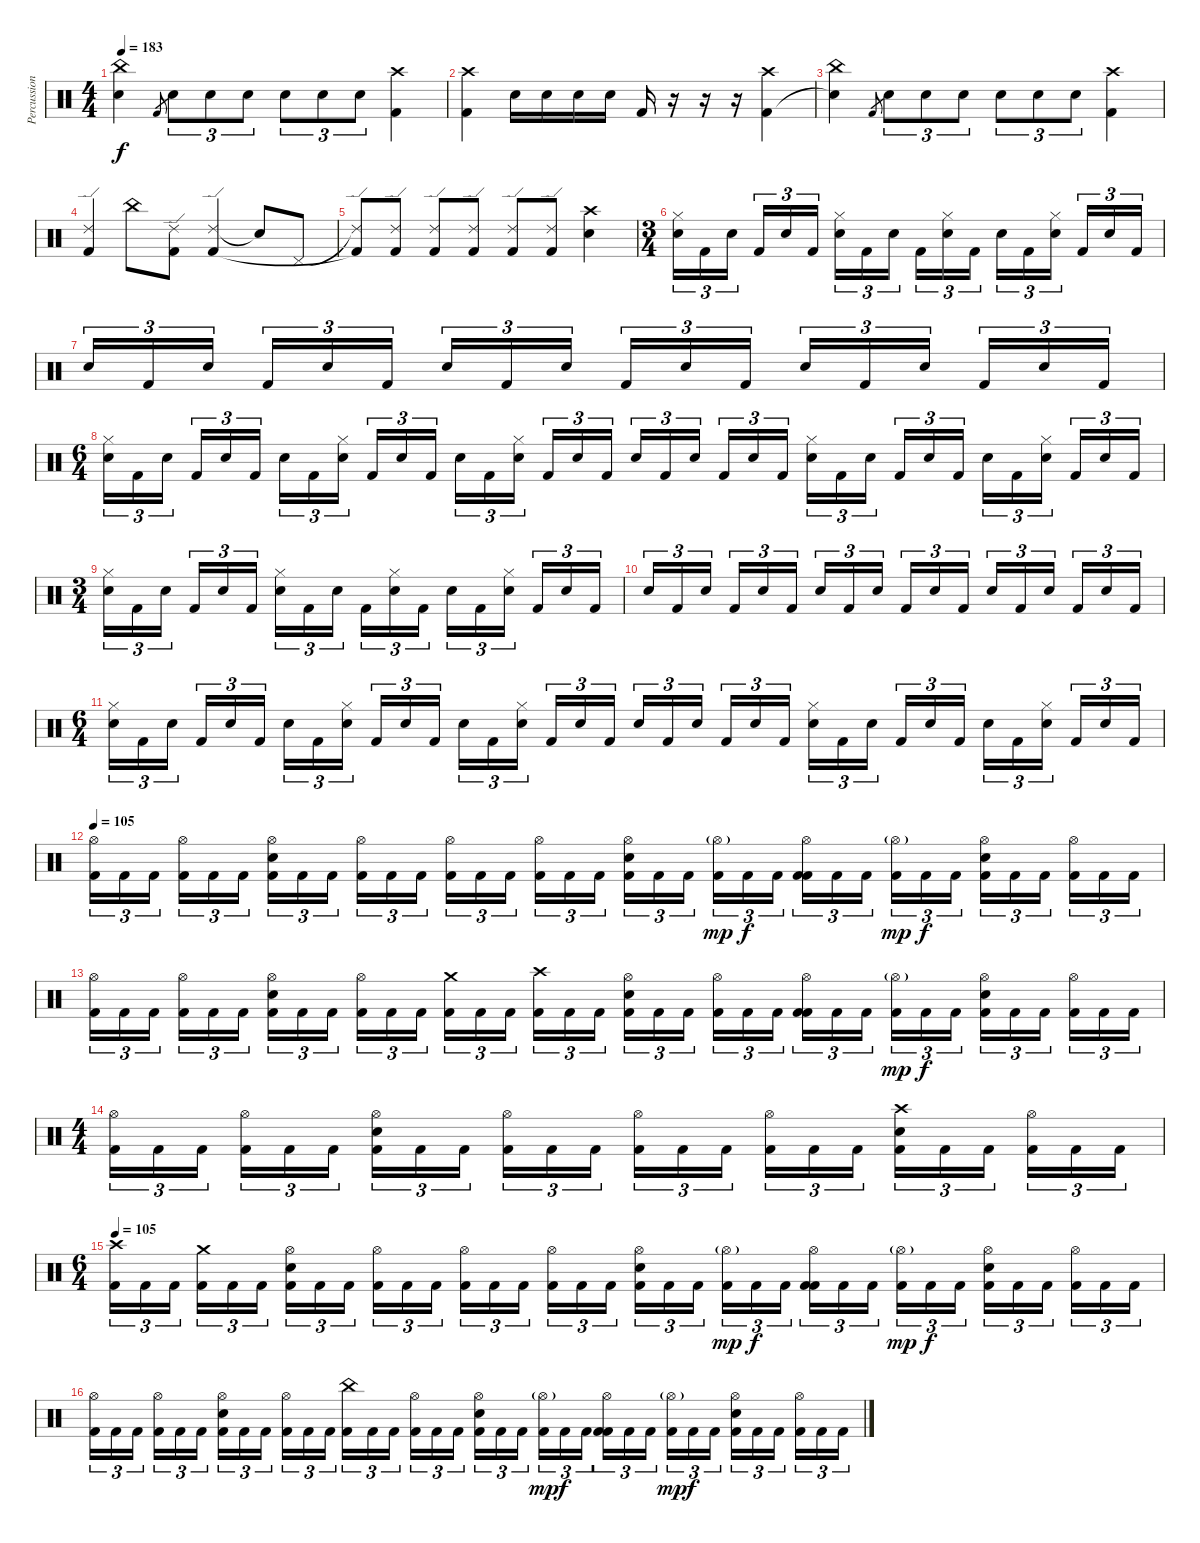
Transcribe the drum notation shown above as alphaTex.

\track ("Percussion" "Percussion") {instrument percussion}
\staff {score}
\articulation defaults
\ts (4 4)
\tempo 183
\clef neutral
\ks c
("China (hit)" "Snare (hit)"{t}).4{dy f} "Kick (hit) 2".8{gr} "Electric Snare (hit)".8{tu (3 2)} "Electric Snare (hit)".8{tu (3 2)} "Electric Snare (hit)".8{tu (3 2)} "Electric Snare (hit)".8{tu (3 2)} "Electric Snare (hit)".8{tu (3 2)} "Electric Snare (hit)".8{tu (3 2)} ("Crash high (hit)" "Kick (hit) 2").4 |
("Crash high (hit)" "Kick (hit) 2").4 "Electric Snare (hit)".16 "Electric Snare (hit)".16 "Electric Snare (hit)".16 "Electric Snare (hit)".16 "Kick (hit) 2".16 r.16 r.16 r.16 ("Crash high (hit)" "Kick (hit) 2").4 |
("China (hit)" "Snare (hit)"{t}).4 "Kick (hit) 2".8{gr} "Electric Snare (hit)".8{tu (3 2)} "Electric Snare (hit)".8{tu (3 2)} "Electric Snare (hit)".8{tu (3 2)} "Electric Snare (hit)".8{tu (3 2)} "Electric Snare (hit)".8{tu (3 2)} "Electric Snare (hit)".8{tu (3 2)} ("Crash high (hit)" "Kick (hit) 2").4 |
("Ride (edge) 2" "Kick (hit) 2").4 "China (hit)".8 ("Ride (edge) 2" "Kick (hit) 2").8 ("Ride (edge) 2" "Kick (hit) 2").4 "Snare (hit)"{t}.8 "Pedal Hi-Hat (hit)".8 |
("Ride (edge) 2"{t} "Kick (hit) 2"{t}).8 ("Ride (edge) 2" "Kick (hit) 2").8 ("Ride (edge) 2" "Kick (hit) 2").8 ("Ride (edge) 2" "Kick (hit) 2").8 ("Ride (edge) 2" "Kick (hit) 2").8 ("Ride (edge) 2" "Kick (hit) 2").8 ("Crash high (hit)" "Electric Snare (hit)").4 |
\ts (3 4)
("Hi-Hat (closed)" "Electric Snare (hit)").16{tu (3 2)} "Kick (hit) 2".16{tu (3 2)} "Electric Snare (hit)".16{tu (3 2)} "Kick (hit) 2".16{tu (3 2)} "Electric Snare (hit)".16{tu (3 2)} "Kick (hit) 2".16{tu (3 2)} ("Hi-Hat (closed)" "Electric Snare (hit)").16{tu (3 2)} "Kick (hit) 2".16{tu (3 2)} "Electric Snare (hit)".16{tu (3 2)} "Kick (hit) 2".16{tu (3 2)} ("Hi-Hat (closed)" "Electric Snare (hit)").16{tu (3 2)} "Kick (hit) 2".16{tu (3 2)} "Electric Snare (hit)".16{tu (3 2)} "Kick (hit) 2".16{tu (3 2)} ("Hi-Hat (closed)" "Electric Snare (hit)").16{tu (3 2)} "Kick (hit) 2".16{tu (3 2)} "Electric Snare (hit)".16{tu (3 2)} "Kick (hit) 2".16{tu (3 2)} |
"Electric Snare (hit)".16{tu (3 2)} "Kick (hit) 2".16{tu (3 2)} "Electric Snare (hit)".16{tu (3 2)} "Kick (hit) 2".16{tu (3 2)} "Electric Snare (hit)".16{tu (3 2)} "Kick (hit) 2".16{tu (3 2)} "Electric Snare (hit)".16{tu (3 2)} "Kick (hit) 2".16{tu (3 2)} "Electric Snare (hit)".16{tu (3 2)} "Kick (hit) 2".16{tu (3 2)} "Electric Snare (hit)".16{tu (3 2)} "Kick (hit) 2".16{tu (3 2)} "Electric Snare (hit)".16{tu (3 2)} "Kick (hit) 2".16{tu (3 2)} "Electric Snare (hit)".16{tu (3 2)} "Kick (hit) 2".16{tu (3 2)} "Electric Snare (hit)".16{tu (3 2)} "Kick (hit) 2".16{tu (3 2)} |
\ts (6 4)
("Hi-Hat (closed)" "Electric Snare (hit)").16{tu (3 2)} "Kick (hit) 2".16{tu (3 2)} "Electric Snare (hit)".16{tu (3 2)} "Kick (hit) 2".16{tu (3 2)} "Electric Snare (hit)".16{tu (3 2)} "Kick (hit) 2".16{tu (3 2)} "Electric Snare (hit)".16{tu (3 2)} "Kick (hit) 2".16{tu (3 2)} ("Hi-Hat (closed)" "Electric Snare (hit)").16{tu (3 2)} "Kick (hit) 2".16{tu (3 2)} "Electric Snare (hit)".16{tu (3 2)} "Kick (hit) 2".16{tu (3 2)} "Electric Snare (hit)".16{tu (3 2)} "Kick (hit) 2".16{tu (3 2)} ("Hi-Hat (closed)" "Electric Snare (hit)").16{tu (3 2)} "Kick (hit) 2".16{tu (3 2)} "Electric Snare (hit)".16{tu (3 2)} "Kick (hit) 2".16{tu (3 2)} "Electric Snare (hit)".16{tu (3 2)} "Kick (hit) 2".16{tu (3 2)} "Electric Snare (hit)".16{tu (3 2)} "Kick (hit) 2".16{tu (3 2)} "Electric Snare (hit)".16{tu (3 2)} "Kick (hit) 2".16{tu (3 2)} ("Hi-Hat (closed)" "Electric Snare (hit)").16{tu (3 2)} "Kick (hit) 2".16{tu (3 2)} "Electric Snare (hit)".16{tu (3 2)} "Kick (hit) 2".16{tu (3 2)} "Electric Snare (hit)".16{tu (3 2)} "Kick (hit) 2".16{tu (3 2)} "Electric Snare (hit)".16{tu (3 2)} "Kick (hit) 2".16{tu (3 2)} ("Hi-Hat (closed)" "Electric Snare (hit)").16{tu (3 2)} "Kick (hit) 2".16{tu (3 2)} "Electric Snare (hit)".16{tu (3 2)} "Kick (hit) 2".16{tu (3 2)} |
\ts (3 4)
("Hi-Hat (closed)" "Electric Snare (hit)").16{tu (3 2)} "Kick (hit) 2".16{tu (3 2)} "Electric Snare (hit)".16{tu (3 2)} "Kick (hit) 2".16{tu (3 2)} "Electric Snare (hit)".16{tu (3 2)} "Kick (hit) 2".16{tu (3 2)} ("Hi-Hat (closed)" "Electric Snare (hit)").16{tu (3 2)} "Kick (hit) 2".16{tu (3 2)} "Electric Snare (hit)".16{tu (3 2)} "Kick (hit) 2".16{tu (3 2)} ("Hi-Hat (closed)" "Electric Snare (hit)").16{tu (3 2)} "Kick (hit) 2".16{tu (3 2)} "Electric Snare (hit)".16{tu (3 2)} "Kick (hit) 2".16{tu (3 2)} ("Hi-Hat (closed)" "Electric Snare (hit)").16{tu (3 2)} "Kick (hit) 2".16{tu (3 2)} "Electric Snare (hit)".16{tu (3 2)} "Kick (hit) 2".16{tu (3 2)} |
"Electric Snare (hit)".16{tu (3 2)} "Kick (hit) 2".16{tu (3 2)} "Electric Snare (hit)".16{tu (3 2)} "Kick (hit) 2".16{tu (3 2)} "Electric Snare (hit)".16{tu (3 2)} "Kick (hit) 2".16{tu (3 2)} "Electric Snare (hit)".16{tu (3 2)} "Kick (hit) 2".16{tu (3 2)} "Electric Snare (hit)".16{tu (3 2)} "Kick (hit) 2".16{tu (3 2)} "Electric Snare (hit)".16{tu (3 2)} "Kick (hit) 2".16{tu (3 2)} "Electric Snare (hit)".16{tu (3 2)} "Kick (hit) 2".16{tu (3 2)} "Electric Snare (hit)".16{tu (3 2)} "Kick (hit) 2".16{tu (3 2)} "Electric Snare (hit)".16{tu (3 2)} "Kick (hit) 2".16{tu (3 2)} |
\ts (6 4)
("Hi-Hat (closed)" "Electric Snare (hit)").16{tu (3 2)} "Kick (hit) 2".16{tu (3 2)} "Electric Snare (hit)".16{tu (3 2)} "Kick (hit) 2".16{tu (3 2)} "Electric Snare (hit)".16{tu (3 2)} "Kick (hit) 2".16{tu (3 2)} "Electric Snare (hit)".16{tu (3 2)} "Kick (hit) 2".16{tu (3 2)} ("Hi-Hat (closed)" "Electric Snare (hit)").16{tu (3 2)} "Kick (hit) 2".16{tu (3 2)} "Electric Snare (hit)".16{tu (3 2)} "Kick (hit) 2".16{tu (3 2)} "Electric Snare (hit)".16{tu (3 2)} "Kick (hit) 2".16{tu (3 2)} ("Hi-Hat (closed)" "Electric Snare (hit)").16{tu (3 2)} "Kick (hit) 2".16{tu (3 2)} "Electric Snare (hit)".16{tu (3 2)} "Kick (hit) 2".16{tu (3 2)} "Electric Snare (hit)".16{tu (3 2)} "Kick (hit) 2".16{tu (3 2)} "Electric Snare (hit)".16{tu (3 2)} "Kick (hit) 2".16{tu (3 2)} "Electric Snare (hit)".16{tu (3 2)} "Kick (hit) 2".16{tu (3 2)} ("Hi-Hat (closed)" "Electric Snare (hit)").16{tu (3 2)} "Kick (hit) 2".16{tu (3 2)} "Electric Snare (hit)".16{tu (3 2)} "Kick (hit) 2".16{tu (3 2)} "Electric Snare (hit)".16{tu (3 2)} "Kick (hit) 2".16{tu (3 2)} "Electric Snare (hit)".16{tu (3 2)} "Kick (hit) 2".16{tu (3 2)} ("Hi-Hat (closed)" "Electric Snare (hit)").16{tu (3 2)} "Kick (hit) 2".16{tu (3 2)} "Electric Snare (hit)".16{tu (3 2)} "Kick (hit) 2".16{tu (3 2)} |
\tempo 105
("Hi-Hat (open)" "Kick (hit) 2").16{tu (3 2)} "Kick (hit) 2".16{tu (3 2)} "Kick (hit) 2".16{tu (3 2)} ("Hi-Hat (open)" "Kick (hit) 2").16{tu (3 2)} "Kick (hit) 2".16{tu (3 2)} "Kick (hit) 2".16{tu (3 2)} ("Hi-Hat (open)" "Electric Snare (hit)" "Kick (hit) 2").16{tu (3 2)} "Kick (hit) 2".16{tu (3 2)} "Kick (hit) 2".16{tu (3 2)} ("Hi-Hat (open)" "Kick (hit) 2").16{tu (3 2)} "Kick (hit) 2".16{tu (3 2)} "Kick (hit) 2".16{tu (3 2)} ("Hi-Hat (open)" "Kick (hit) 2").16{tu (3 2)} "Kick (hit) 2".16{tu (3 2)} "Kick (hit) 2".16{tu (3 2)} ("Hi-Hat (open)" "Kick (hit) 2").16{tu (3 2)} "Kick (hit) 2".16{tu (3 2)} "Kick (hit) 2".16{tu (3 2)} ("Hi-Hat (open)" "Electric Snare (hit)" "Kick (hit) 2").16{tu (3 2)} "Kick (hit) 2".16{tu (3 2)} "Kick (hit) 2".16{tu (3 2)} ("Hi-Hat (open)"{g} "Kick (hit) 2").16{tu (3 2) dy mp} "Kick (hit) 2".16{tu (3 2) dy f} "Kick (hit) 2".16{tu (3 2)} ("Hi-Hat (open)" "Kick (hit) 2" "Kick (hit) 2").16{tu (3 2)} "Kick (hit) 2".16{tu (3 2)} "Kick (hit) 2".16{tu (3 2)} ("Hi-Hat (open)"{g} "Kick (hit) 2").16{tu (3 2) dy mp} "Kick (hit) 2".16{tu (3 2) dy f} "Kick (hit) 2".16{tu (3 2)} ("Hi-Hat (open)" "Electric Snare (hit)" "Kick (hit) 2").16{tu (3 2)} "Kick (hit) 2".16{tu (3 2)} "Kick (hit) 2".16{tu (3 2)} ("Hi-Hat (open)" "Kick (hit) 2").16{tu (3 2)} "Kick (hit) 2".16{tu (3 2)} "Kick (hit) 2".16{tu (3 2)} |
("Hi-Hat (open)" "Kick (hit) 2").16{tu (3 2)} "Kick (hit) 2".16{tu (3 2)} "Kick (hit) 2".16{tu (3 2)} ("Hi-Hat (open)" "Kick (hit) 2").16{tu (3 2)} "Kick (hit) 2".16{tu (3 2)} "Kick (hit) 2".16{tu (3 2)} ("Hi-Hat (open)" "Electric Snare (hit)" "Kick (hit) 2").16{tu (3 2)} "Kick (hit) 2".16{tu (3 2)} "Kick (hit) 2".16{tu (3 2)} ("Hi-Hat (open)" "Kick (hit) 2").16{tu (3 2)} "Kick (hit) 2".16{tu (3 2)} "Kick (hit) 2".16{tu (3 2)} ("Crash medium (hit)" "Kick (hit) 2").16{tu (3 2)} "Kick (hit) 2".16{tu (3 2)} "Kick (hit) 2".16{tu (3 2)} ("Crash high (hit)" "Kick (hit) 2").16{tu (3 2)} "Kick (hit) 2".16{tu (3 2)} "Kick (hit) 2".16{tu (3 2)} ("Hi-Hat (open)" "Electric Snare (hit)" "Kick (hit) 2").16{tu (3 2)} "Kick (hit) 2".16{tu (3 2)} "Kick (hit) 2".16{tu (3 2)} ("Hi-Hat (open)" "Kick (hit) 2").16{tu (3 2)} "Kick (hit) 2".16{tu (3 2)} "Kick (hit) 2".16{tu (3 2)} ("Hi-Hat (open)" "Kick (hit) 2" "Kick (hit) 2").16{tu (3 2)} "Kick (hit) 2".16{tu (3 2)} "Kick (hit) 2".16{tu (3 2)} ("Hi-Hat (open)"{g} "Kick (hit) 2").16{tu (3 2) dy mp} "Kick (hit) 2".16{tu (3 2) dy f} "Kick (hit) 2".16{tu (3 2)} ("Hi-Hat (open)" "Electric Snare (hit)" "Kick (hit) 2").16{tu (3 2)} "Kick (hit) 2".16{tu (3 2)} "Kick (hit) 2".16{tu (3 2)} ("Hi-Hat (open)" "Kick (hit) 2").16{tu (3 2)} "Kick (hit) 2".16{tu (3 2)} "Kick (hit) 2".16{tu (3 2)} |
\ts (4 4)
("Hi-Hat (open)" "Kick (hit) 2").16{tu (3 2)} "Kick (hit) 2".16{tu (3 2)} "Kick (hit) 2".16{tu (3 2)} ("Hi-Hat (open)" "Kick (hit) 2").16{tu (3 2)} "Kick (hit) 2".16{tu (3 2)} "Kick (hit) 2".16{tu (3 2)} ("Hi-Hat (open)" "Electric Snare (hit)" "Kick (hit) 2").16{tu (3 2)} "Kick (hit) 2".16{tu (3 2)} "Kick (hit) 2".16{tu (3 2)} ("Hi-Hat (open)" "Kick (hit) 2").16{tu (3 2)} "Kick (hit) 2".16{tu (3 2)} "Kick (hit) 2".16{tu (3 2)} ("Hi-Hat (open)" "Kick (hit) 2").16{tu (3 2)} "Kick (hit) 2".16{tu (3 2)} "Kick (hit) 2".16{tu (3 2)} ("Hi-Hat (open)" "Kick (hit) 2").16{tu (3 2)} "Kick (hit) 2".16{tu (3 2)} "Kick (hit) 2".16{tu (3 2)} ("Crash high (hit)" "Electric Snare (hit)" "Kick (hit) 2").16{tu (3 2)} "Kick (hit) 2".16{tu (3 2)} "Kick (hit) 2".16{tu (3 2)} ("Hi-Hat (open)" "Kick (hit) 2").16{tu (3 2)} "Kick (hit) 2".16{tu (3 2)} "Kick (hit) 2".16{tu (3 2)} |
\ts (6 4)
\tempo 105
("Crash high (hit)" "Kick (hit) 2").16{tu (3 2)} "Kick (hit) 2".16{tu (3 2)} "Kick (hit) 2".16{tu (3 2)} ("Crash medium (hit)" "Kick (hit) 2").16{tu (3 2)} "Kick (hit) 2".16{tu (3 2)} "Kick (hit) 2".16{tu (3 2)} ("Hi-Hat (open)" "Electric Snare (hit)" "Kick (hit) 2").16{tu (3 2)} "Kick (hit) 2".16{tu (3 2)} "Kick (hit) 2".16{tu (3 2)} ("Hi-Hat (open)" "Kick (hit) 2").16{tu (3 2)} "Kick (hit) 2".16{tu (3 2)} "Kick (hit) 2".16{tu (3 2)} ("Hi-Hat (open)" "Kick (hit) 2").16{tu (3 2)} "Kick (hit) 2".16{tu (3 2)} "Kick (hit) 2".16{tu (3 2)} ("Hi-Hat (open)" "Kick (hit) 2").16{tu (3 2)} "Kick (hit) 2".16{tu (3 2)} "Kick (hit) 2".16{tu (3 2)} ("Hi-Hat (open)" "Electric Snare (hit)" "Kick (hit) 2").16{tu (3 2)} "Kick (hit) 2".16{tu (3 2)} "Kick (hit) 2".16{tu (3 2)} ("Hi-Hat (open)"{g} "Kick (hit) 2").16{tu (3 2) dy mp} "Kick (hit) 2".16{tu (3 2) dy f} "Kick (hit) 2".16{tu (3 2)} ("Hi-Hat (open)" "Kick (hit) 2" "Kick (hit) 2").16{tu (3 2)} "Kick (hit) 2".16{tu (3 2)} "Kick (hit) 2".16{tu (3 2)} ("Hi-Hat (open)"{g} "Kick (hit) 2").16{tu (3 2) dy mp} "Kick (hit) 2".16{tu (3 2) dy f} "Kick (hit) 2".16{tu (3 2)} ("Hi-Hat (open)" "Electric Snare (hit)" "Kick (hit) 2").16{tu (3 2)} "Kick (hit) 2".16{tu (3 2)} "Kick (hit) 2".16{tu (3 2)} ("Hi-Hat (open)" "Kick (hit) 2").16{tu (3 2)} "Kick (hit) 2".16{tu (3 2)} "Kick (hit) 2".16{tu (3 2)} |
("Hi-Hat (open)" "Kick (hit) 2").16{tu (3 2)} "Kick (hit) 2".16{tu (3 2)} "Kick (hit) 2".16{tu (3 2)} ("Hi-Hat (open)" "Kick (hit) 2").16{tu (3 2)} "Kick (hit) 2".16{tu (3 2)} "Kick (hit) 2".16{tu (3 2)} ("Hi-Hat (open)" "Electric Snare (hit)" "Kick (hit) 2").16{tu (3 2)} "Kick (hit) 2".16{tu (3 2)} "Kick (hit) 2".16{tu (3 2)} ("Hi-Hat (open)" "Kick (hit) 2").16{tu (3 2)} "Kick (hit) 2".16{tu (3 2)} "Kick (hit) 2".16{tu (3 2)} ("China (hit)" "Kick (hit) 2").16{tu (3 2)} "Kick (hit) 2".16{tu (3 2)} "Kick (hit) 2".16{tu (3 2)} ("Hi-Hat (open)" "Kick (hit) 2").16{tu (3 2)} "Kick (hit) 2".16{tu (3 2)} "Kick (hit) 2".16{tu (3 2)} ("Hi-Hat (open)" "Electric Snare (hit)" "Kick (hit) 2").16{tu (3 2)} "Kick (hit) 2".16{tu (3 2)} "Kick (hit) 2".16{tu (3 2)} ("Hi-Hat (open)"{g} "Kick (hit) 2").16{tu (3 2) dy mp} "Kick (hit) 2".16{tu (3 2) dy f} "Kick (hit) 2".16{tu (3 2)} ("Hi-Hat (open)" "Kick (hit) 2" "Kick (hit) 2").16{tu (3 2)} "Kick (hit) 2".16{tu (3 2)} "Kick (hit) 2".16{tu (3 2)} ("Hi-Hat (open)"{g} "Kick (hit) 2").16{tu (3 2) dy mp} "Kick (hit) 2".16{tu (3 2) dy f} "Kick (hit) 2".16{tu (3 2)} ("Hi-Hat (open)" "Electric Snare (hit)" "Kick (hit) 2").16{tu (3 2)} "Kick (hit) 2".16{tu (3 2)} "Kick (hit) 2".16{tu (3 2)} ("Hi-Hat (open)" "Kick (hit) 2").16{tu (3 2)} "Kick (hit) 2".16{tu (3 2)} "Kick (hit) 2".16{tu (3 2)}
